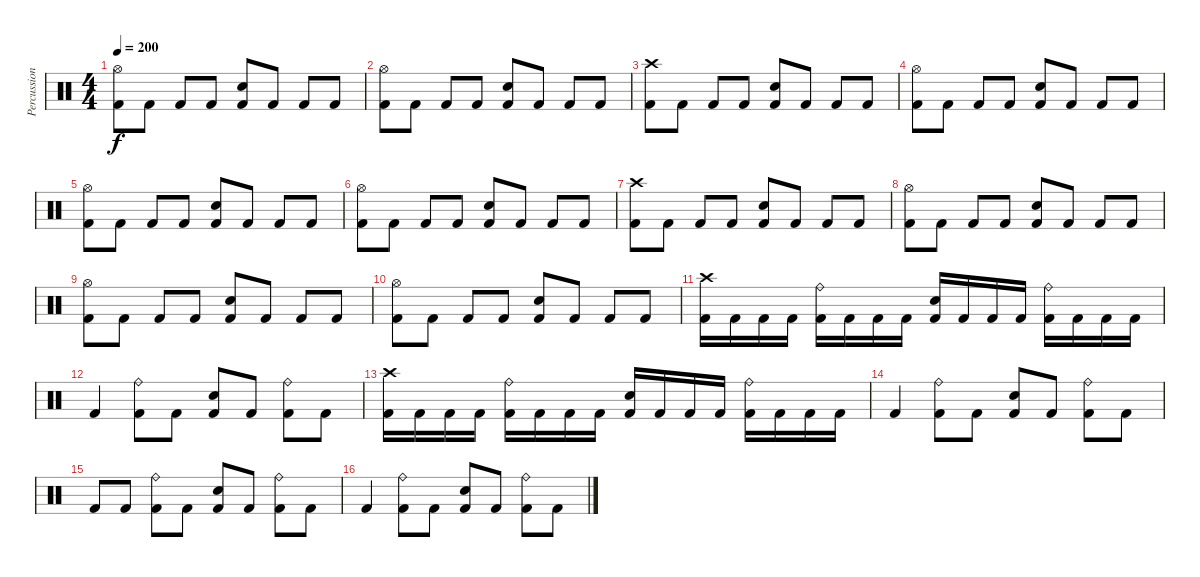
\track ("Percussion" "Percussion") {instrument percussion}
\staff {score}
\articulation defaults
\ts (4 4)
\tempo 200
\clef neutral
\ks c
("Hi-Hat (open)" "Kick (hit) 2").8{dy f} "Kick (hit) 2".8 "Kick (hit) 2".8 "Kick (hit) 2".8 ("Electric Snare (hit)" "Kick (hit) 2").8 "Kick (hit) 2".8 "Kick (hit) 2".8 "Kick (hit) 2".8 |
("Hi-Hat (open)" "Kick (hit) 2").8 "Kick (hit) 2".8 "Kick (hit) 2".8 "Kick (hit) 2".8 ("Electric Snare (hit)" "Kick (hit) 2").8 "Kick (hit) 2".8 "Kick (hit) 2".8 "Kick (hit) 2".8 |
("Crash high (hit)" "Kick (hit) 2").8 "Kick (hit) 2".8 "Kick (hit) 2".8 "Kick (hit) 2".8 ("Electric Snare (hit)" "Kick (hit) 2").8 "Kick (hit) 2".8 "Kick (hit) 2".8 "Kick (hit) 2".8 |
("Hi-Hat (open)" "Kick (hit) 2").8 "Kick (hit) 2".8 "Kick (hit) 2".8 "Kick (hit) 2".8 ("Electric Snare (hit)" "Kick (hit) 2").8 "Kick (hit) 2".8 "Kick (hit) 2".8 "Kick (hit) 2".8 |
("Hi-Hat (open)" "Kick (hit) 2").8 "Kick (hit) 2".8 "Kick (hit) 2".8 "Kick (hit) 2".8 ("Electric Snare (hit)" "Kick (hit) 2").8 "Kick (hit) 2".8 "Kick (hit) 2".8 "Kick (hit) 2".8 |
("Hi-Hat (open)" "Kick (hit) 2").8 "Kick (hit) 2".8 "Kick (hit) 2".8 "Kick (hit) 2".8 ("Electric Snare (hit)" "Kick (hit) 2").8 "Kick (hit) 2".8 "Kick (hit) 2".8 "Kick (hit) 2".8 |
("Crash high (hit)" "Kick (hit) 2").8 "Kick (hit) 2".8 "Kick (hit) 2".8 "Kick (hit) 2".8 ("Electric Snare (hit)" "Kick (hit) 2").8 "Kick (hit) 2".8 "Kick (hit) 2".8 "Kick (hit) 2".8 |
("Hi-Hat (open)" "Kick (hit) 2").8 "Kick (hit) 2".8 "Kick (hit) 2".8 "Kick (hit) 2".8 ("Electric Snare (hit)" "Kick (hit) 2").8 "Kick (hit) 2".8 "Kick (hit) 2".8 "Kick (hit) 2".8 |
("Hi-Hat (open)" "Kick (hit) 2").8 "Kick (hit) 2".8 "Kick (hit) 2".8 "Kick (hit) 2".8 ("Electric Snare (hit)" "Kick (hit) 2").8 "Kick (hit) 2".8 "Kick (hit) 2".8 "Kick (hit) 2".8 |
("Hi-Hat (open)" "Kick (hit) 2").8 "Kick (hit) 2".8 "Kick (hit) 2".8 "Kick (hit) 2".8 ("Electric Snare (hit)" "Kick (hit) 2").8 "Kick (hit) 2".8 "Kick (hit) 2".8 "Kick (hit) 2".8 |
("Crash high (hit)" "Kick (hit) 2").16 "Kick (hit) 2".16 "Kick (hit) 2".16 "Kick (hit) 2".16 ("Ride (bell)" "Kick (hit) 2").16 "Kick (hit) 2".16 "Kick (hit) 2".16 "Kick (hit) 2".16 ("Electric Snare (hit)" "Kick (hit) 2").16 "Kick (hit) 2".16 "Kick (hit) 2".16 "Kick (hit) 2".16 ("Ride (bell)" "Kick (hit) 2").16 "Kick (hit) 2".16 "Kick (hit) 2".16 "Kick (hit) 2".16 |
"Kick (hit) 2".4 ("Ride (bell)" "Kick (hit) 2").8 "Kick (hit) 2".8 ("Electric Snare (hit)" "Kick (hit) 2").8 "Kick (hit) 2".8 ("Ride (bell)" "Kick (hit) 2").8 "Kick (hit) 2".8 |
("Crash high (hit)" "Kick (hit) 2").16 "Kick (hit) 2".16 "Kick (hit) 2".16 "Kick (hit) 2".16 ("Ride (bell)" "Kick (hit) 2").16 "Kick (hit) 2".16 "Kick (hit) 2".16 "Kick (hit) 2".16 ("Electric Snare (hit)" "Kick (hit) 2").16 "Kick (hit) 2".16 "Kick (hit) 2".16 "Kick (hit) 2".16 ("Ride (bell)" "Kick (hit) 2").16 "Kick (hit) 2".16 "Kick (hit) 2".16 "Kick (hit) 2".16 |
"Kick (hit) 2".4 ("Ride (bell)" "Kick (hit) 2").8 "Kick (hit) 2".8 ("Electric Snare (hit)" "Kick (hit) 2").8 "Kick (hit) 2".8 ("Ride (bell)" "Kick (hit) 2").8 "Kick (hit) 2".8 |
"Kick (hit) 2".8 "Kick (hit) 2".8 ("Ride (bell)" "Kick (hit) 2").8 "Kick (hit) 2".8 ("Electric Snare (hit)" "Kick (hit) 2").8 "Kick (hit) 2".8 ("Ride (bell)" "Kick (hit) 2").8 "Kick (hit) 2".8 |
"Kick (hit) 2".4 ("Ride (bell)" "Kick (hit) 2").8 "Kick (hit) 2".8 ("Electric Snare (hit)" "Kick (hit) 2").8 "Kick (hit) 2".8 ("Ride (bell)" "Kick (hit) 2").8 "Kick (hit) 2".8
